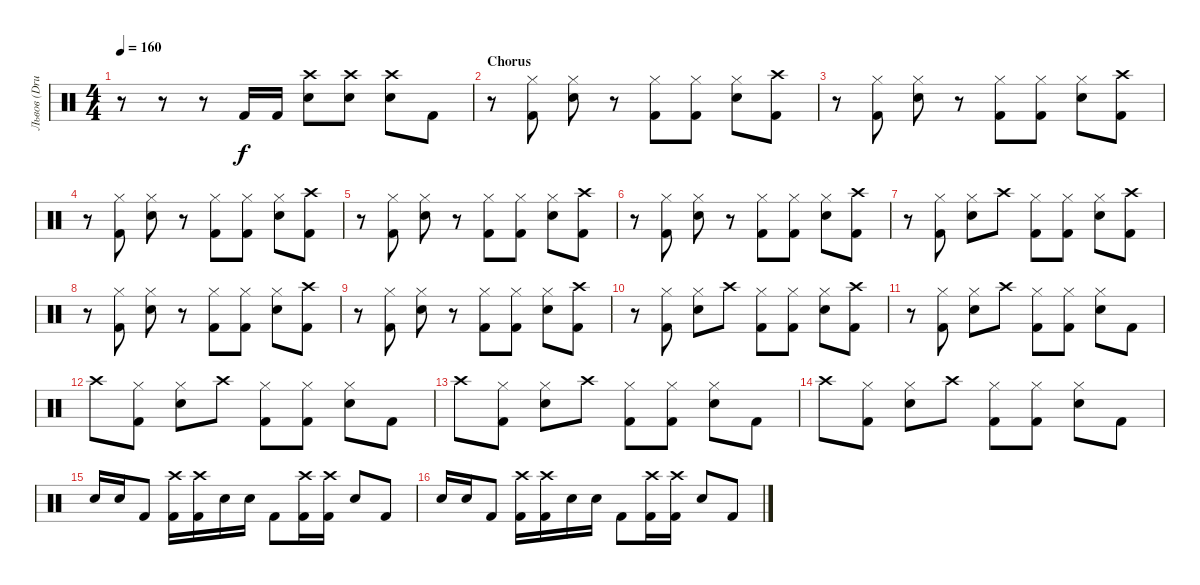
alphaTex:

\track ("Львов (Drums)" "Львов (Dru") {instrument percussion}
\staff {score}
\articulation defaults
\ts (4 4)
\tempo 160
\clef neutral
\ks c
r.8{dy f} r.8 r.8 "Kick (hit) 2".16 "Kick (hit) 2".16 ("Electric Snare (hit)" "Crash high (hit)").8 ("Electric Snare (hit)" "Crash high (hit)").8 ("Electric Snare (hit)" "Crash high (hit)").8 "Kick (hit) 2".8 |
\section ("" "Chorus")
r.8 ("Kick (hit) 2" "Hi-Hat (closed)").8 ("Electric Snare (hit)" "Hi-Hat (closed)").8 r.8 ("Kick (hit) 2" "Hi-Hat (closed)").8 ("Kick (hit) 2" "Hi-Hat (closed)").8 ("Electric Snare (hit)" "Hi-Hat (closed)").8 ("Kick (hit) 2" "Crash high (hit)").8 |
r.8 ("Kick (hit) 2" "Hi-Hat (closed)").8 ("Electric Snare (hit)" "Hi-Hat (closed)").8 r.8 ("Kick (hit) 2" "Hi-Hat (closed)").8 ("Kick (hit) 2" "Hi-Hat (closed)").8 ("Electric Snare (hit)" "Hi-Hat (closed)").8 ("Kick (hit) 2" "Crash high (hit)").8 |
r.8 ("Kick (hit) 2" "Hi-Hat (closed)").8 ("Electric Snare (hit)" "Hi-Hat (closed)").8 r.8 ("Kick (hit) 2" "Hi-Hat (closed)").8 ("Kick (hit) 2" "Hi-Hat (closed)").8 ("Electric Snare (hit)" "Hi-Hat (closed)").8 ("Kick (hit) 2" "Crash high (hit)").8 |
r.8 ("Kick (hit) 2" "Hi-Hat (closed)").8 ("Electric Snare (hit)" "Hi-Hat (closed)").8 r.8 ("Kick (hit) 2" "Hi-Hat (closed)").8 ("Kick (hit) 2" "Hi-Hat (closed)").8 ("Electric Snare (hit)" "Hi-Hat (closed)").8 ("Kick (hit) 2" "Crash high (hit)").8 |
r.8 ("Kick (hit) 2" "Hi-Hat (closed)").8 ("Electric Snare (hit)" "Hi-Hat (closed)").8 r.8 ("Kick (hit) 2" "Hi-Hat (closed)").8 ("Kick (hit) 2" "Hi-Hat (closed)").8 ("Electric Snare (hit)" "Hi-Hat (closed)").8 ("Kick (hit) 2" "Crash high (hit)").8 |
r.8 ("Kick (hit) 2" "Hi-Hat (closed)").8 ("Electric Snare (hit)" "Hi-Hat (closed)").8 "Crash high (hit)".8 ("Kick (hit) 2" "Hi-Hat (closed)").8 ("Kick (hit) 2" "Hi-Hat (closed)").8 ("Electric Snare (hit)" "Hi-Hat (closed)").8 ("Kick (hit) 2" "Crash high (hit)").8 |
r.8 ("Kick (hit) 2" "Hi-Hat (closed)").8 ("Electric Snare (hit)" "Hi-Hat (closed)").8 r.8 ("Kick (hit) 2" "Hi-Hat (closed)").8 ("Kick (hit) 2" "Hi-Hat (closed)").8 ("Electric Snare (hit)" "Hi-Hat (closed)").8 ("Kick (hit) 2" "Crash high (hit)").8 |
r.8 ("Kick (hit) 2" "Hi-Hat (closed)").8 ("Electric Snare (hit)" "Hi-Hat (closed)").8 r.8 ("Kick (hit) 2" "Hi-Hat (closed)").8 ("Kick (hit) 2" "Hi-Hat (closed)").8 ("Electric Snare (hit)" "Hi-Hat (closed)").8 ("Kick (hit) 2" "Crash high (hit)").8 |
r.8 ("Kick (hit) 2" "Hi-Hat (closed)").8 ("Electric Snare (hit)" "Hi-Hat (closed)").8 "Crash high (hit)".8 ("Kick (hit) 2" "Hi-Hat (closed)").8 ("Kick (hit) 2" "Hi-Hat (closed)").8 ("Electric Snare (hit)" "Hi-Hat (closed)").8 ("Kick (hit) 2" "Crash high (hit)").8 |
r.8 ("Kick (hit) 2" "Hi-Hat (closed)").8 ("Electric Snare (hit)" "Hi-Hat (closed)").8 "Crash high (hit)".8 ("Kick (hit) 2" "Hi-Hat (closed)").8 ("Kick (hit) 2" "Hi-Hat (closed)").8 ("Electric Snare (hit)" "Hi-Hat (closed)").8 "Kick (hit) 2".8 |
"Crash high (hit)".8 ("Kick (hit) 2" "Hi-Hat (closed)").8 ("Electric Snare (hit)" "Hi-Hat (closed)").8 "Crash high (hit)".8 ("Kick (hit) 2" "Hi-Hat (closed)").8 ("Kick (hit) 2" "Hi-Hat (closed)").8 ("Electric Snare (hit)" "Hi-Hat (closed)").8 "Kick (hit) 2".8 |
"Crash high (hit)".8 ("Kick (hit) 2" "Hi-Hat (closed)").8 ("Electric Snare (hit)" "Hi-Hat (closed)").8 "Crash high (hit)".8 ("Kick (hit) 2" "Hi-Hat (closed)").8 ("Kick (hit) 2" "Hi-Hat (closed)").8 ("Electric Snare (hit)" "Hi-Hat (closed)").8 "Kick (hit) 2".8 |
"Crash high (hit)".8 ("Kick (hit) 2" "Hi-Hat (closed)").8 ("Electric Snare (hit)" "Hi-Hat (closed)").8 "Crash high (hit)".8 ("Kick (hit) 2" "Hi-Hat (closed)").8 ("Kick (hit) 2" "Hi-Hat (closed)").8 ("Electric Snare (hit)" "Hi-Hat (closed)").8 "Kick (hit) 2".8 |
"Electric Snare (hit)".16 "Electric Snare (hit)".16 "Kick (hit) 2".8 ("Kick (hit) 2" "Crash high (hit)").16 ("Kick (hit) 2" "Crash high (hit)").16 "Electric Snare (hit)".16 "Electric Snare (hit)".16 "Kick (hit) 2".8 ("Kick (hit) 2" "Crash high (hit)").16 ("Kick (hit) 2" "Crash high (hit)").16 "Electric Snare (hit)".8 "Kick (hit) 2".8 |
"Electric Snare (hit)".16 "Electric Snare (hit)".16 "Kick (hit) 2".8 ("Kick (hit) 2" "Crash high (hit)").16 ("Kick (hit) 2" "Crash high (hit)").16 "Electric Snare (hit)".16 "Electric Snare (hit)".16 "Kick (hit) 2".8 ("Kick (hit) 2" "Crash high (hit)").16 ("Kick (hit) 2" "Crash high (hit)").16 "Electric Snare (hit)".8 "Kick (hit) 2".8
